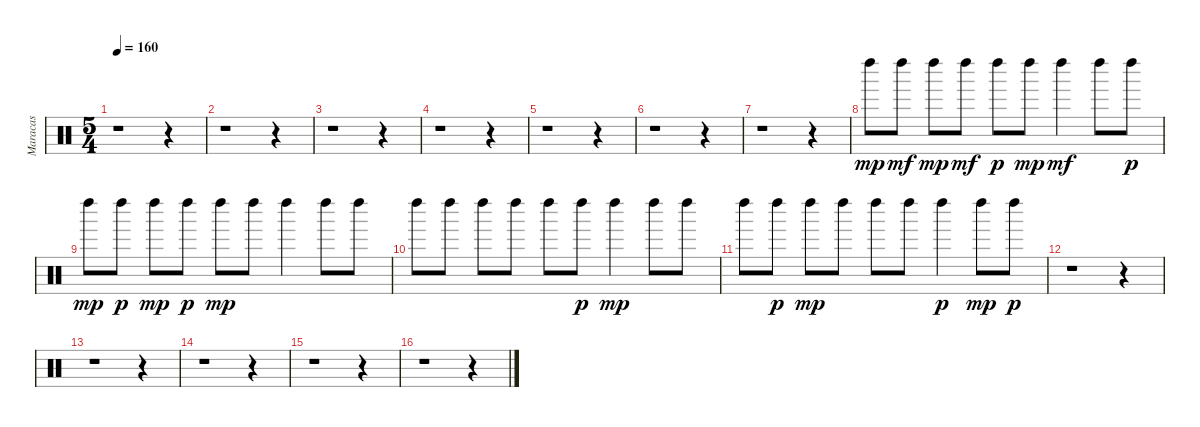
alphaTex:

\track ("Maracas" "Maracas") {instrument percussion}
\staff {score}
\articulation defaults
\ts (5 4)
\tempo 160
\clef neutral
\ks c
r.1{dy mp} r.4 |
r.1 r.4 |
r.1 r.4 |
r.1 r.4 |
r.1 r.4 |
r.1 r.4 |
r.1 r.4 |
"Left Maraca (hit)".8 "Left Maraca (hit)".8{dy mf} "Left Maraca (hit)".8{dy mp} "Left Maraca (hit)".8{dy mf} "Left Maraca (hit)".8{dy p} "Left Maraca (hit)".8{dy mp} "Left Maraca (hit)".4{dy mf} "Left Maraca (hit)".8 "Left Maraca (hit)".8{dy p} |
"Left Maraca (hit)".8{dy mp} "Left Maraca (hit)".8{dy p} "Left Maraca (hit)".8{dy mp} "Left Maraca (hit)".8{dy p} "Left Maraca (hit)".8{dy mp} "Left Maraca (hit)".8 "Left Maraca (hit)".4 "Left Maraca (hit)".8 "Left Maraca (hit)".8 |
"Left Maraca (hit)".8 "Left Maraca (hit)".8 "Left Maraca (hit)".8 "Left Maraca (hit)".8 "Left Maraca (hit)".8 "Left Maraca (hit)".8{dy p} "Left Maraca (hit)".4{dy mp} "Left Maraca (hit)".8 "Left Maraca (hit)".8 |
"Left Maraca (hit)".8 "Left Maraca (hit)".8{dy p} "Left Maraca (hit)".8{dy mp} "Left Maraca (hit)".8 "Left Maraca (hit)".8 "Left Maraca (hit)".8 "Left Maraca (hit)".4{dy p} "Left Maraca (hit)".8{dy mp} "Left Maraca (hit)".8{dy p} |
r.1 r.4 |
r.1 r.4 |
r.1 r.4 |
r.1 r.4 |
r.1 r.4
